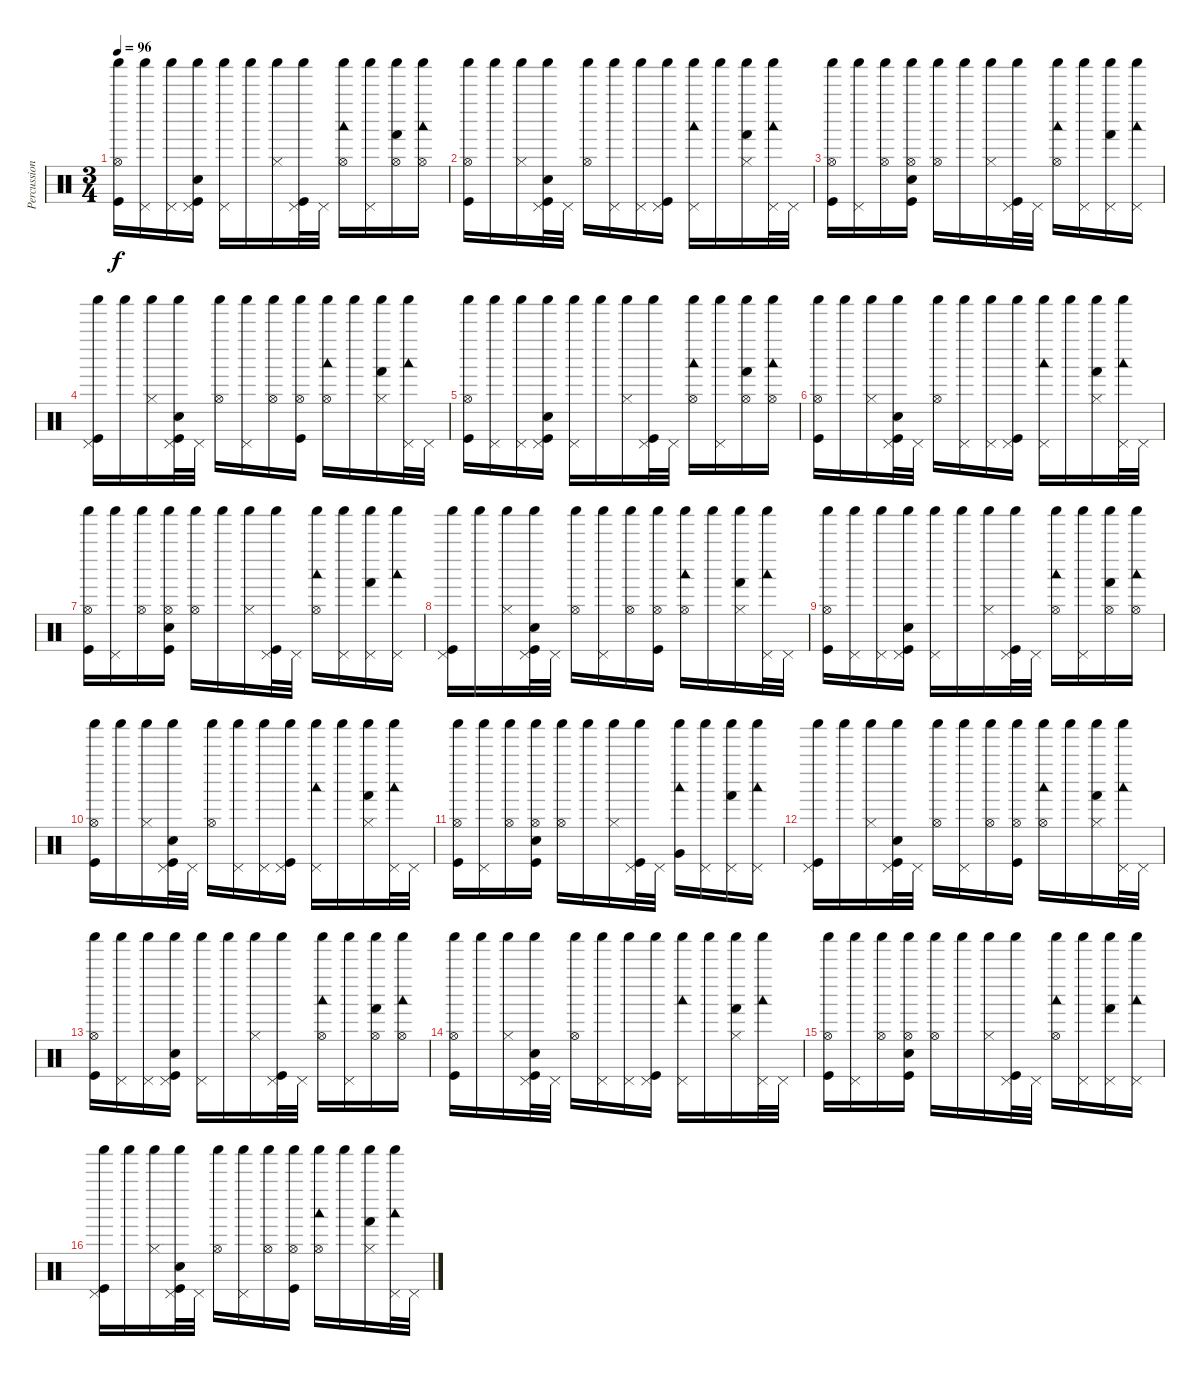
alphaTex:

\track ("Percussions" "Percussion") {instrument percussion}
\staff {score}
\articulation defaults
\ts (3 4)
\tempo 96
\clef neutral
\ks c
("Hi-Hat (open)" "Shaker (hit)" "Kick (hit)").16{dy f} ("Pedal Hi-Hat (hit)" "Shaker (hit)").16 ("Pedal Hi-Hat (hit)" "Shaker (hit)").16 ("Pedal Hi-Hat (hit)" "Shaker (hit)" "Metronome (bell)" "Kick (hit)").16 ("Pedal Hi-Hat (hit)" "Shaker (hit)").16 "Shaker (hit)".16 ("Hi-Hat (closed)" "Shaker (hit)").16 ("Pedal Hi-Hat (hit)" "Shaker (hit)" "Kick (hit)").32 "Pedal Hi-Hat (hit)".32 ("Hi-Hat (open)" "Shaker (hit)" "Woodblock low (hit)").16 ("Pedal Hi-Hat (hit)" "Shaker (hit)").16 ("Hi-Hat (open)" "Shaker (hit)" "Hand (hit)").16 ("Hi-Hat (open)" "Shaker (hit)" "Woodblock low (hit)").16 |
("Hi-Hat (open)" "Shaker (hit)" "Kick (hit)").16 "Shaker (hit)".16 ("Hi-Hat (closed)" "Shaker (hit)").16 ("Pedal Hi-Hat (hit)" "Shaker (hit)" "Metronome (bell)" "Kick (hit)").32 "Pedal Hi-Hat (hit)".32 ("Hi-Hat (open)" "Shaker (hit)").16 ("Pedal Hi-Hat (hit)" "Shaker (hit)").16 ("Pedal Hi-Hat (hit)" "Shaker (hit)").16 ("Pedal Hi-Hat (hit)" "Shaker (hit)" "Kick (hit)").16 ("Pedal Hi-Hat (hit)" "Shaker (hit)" "Woodblock low (hit)").16 "Shaker (hit)".16 ("Hi-Hat (closed)" "Shaker (hit)" "Hand (hit)").16 ("Pedal Hi-Hat (hit)" "Shaker (hit)" "Woodblock low (hit)").32 "Pedal Hi-Hat (hit)".32 |
("Hi-Hat (open)" "Shaker (hit)" "Kick (hit)").16 ("Pedal Hi-Hat (hit)" "Shaker (hit)").16 ("Hi-Hat (open)" "Shaker (hit)").16 ("Hi-Hat (open)" "Shaker (hit)" "Metronome (bell)" "Kick (hit)").16 ("Hi-Hat (open)" "Shaker (hit)").16 "Shaker (hit)".16 ("Hi-Hat (closed)" "Shaker (hit)").16 ("Pedal Hi-Hat (hit)" "Shaker (hit)" "Kick (hit)").32 "Pedal Hi-Hat (hit)".32 ("Hi-Hat (open)" "Shaker (hit)" "Woodblock low (hit)").16 ("Pedal Hi-Hat (hit)" "Shaker (hit)").16 ("Pedal Hi-Hat (hit)" "Shaker (hit)" "Hand (hit)").16 ("Pedal Hi-Hat (hit)" "Shaker (hit)" "Woodblock low (hit)").16 |
("Pedal Hi-Hat (hit)" "Shaker (hit)" "Kick (hit)").16 "Shaker (hit)".16 ("Hi-Hat (closed)" "Shaker (hit)").16 ("Pedal Hi-Hat (hit)" "Shaker (hit)" "Metronome (bell)" "Kick (hit)").32 "Pedal Hi-Hat (hit)".32 ("Hi-Hat (open)" "Shaker (hit)").16 ("Pedal Hi-Hat (hit)" "Shaker (hit)").16 ("Hi-Hat (open)" "Shaker (hit)").16 ("Hi-Hat (open)" "Shaker (hit)" "Kick (hit)").16 ("Hi-Hat (open)" "Shaker (hit)" "Woodblock low (hit)").16 "Shaker (hit)".16 ("Hi-Hat (closed)" "Shaker (hit)" "Hand (hit)").16 ("Pedal Hi-Hat (hit)" "Shaker (hit)" "Woodblock low (hit)").32 "Pedal Hi-Hat (hit)".32 |
("Hi-Hat (open)" "Shaker (hit)" "Kick (hit)").16 ("Pedal Hi-Hat (hit)" "Shaker (hit)").16 ("Pedal Hi-Hat (hit)" "Shaker (hit)").16 ("Pedal Hi-Hat (hit)" "Shaker (hit)" "Metronome (bell)" "Kick (hit)").16 ("Pedal Hi-Hat (hit)" "Shaker (hit)").16 "Shaker (hit)".16 ("Hi-Hat (closed)" "Shaker (hit)").16 ("Pedal Hi-Hat (hit)" "Shaker (hit)" "Kick (hit)").32 "Pedal Hi-Hat (hit)".32 ("Hi-Hat (open)" "Shaker (hit)" "Woodblock low (hit)").16 ("Pedal Hi-Hat (hit)" "Shaker (hit)").16 ("Hi-Hat (open)" "Shaker (hit)" "Hand (hit)").16 ("Hi-Hat (open)" "Shaker (hit)" "Woodblock low (hit)").16 |
("Hi-Hat (open)" "Shaker (hit)" "Kick (hit)").16 "Shaker (hit)".16 ("Hi-Hat (closed)" "Shaker (hit)").16 ("Pedal Hi-Hat (hit)" "Shaker (hit)" "Metronome (bell)" "Kick (hit)").32 "Pedal Hi-Hat (hit)".32 ("Hi-Hat (open)" "Shaker (hit)").16 ("Pedal Hi-Hat (hit)" "Shaker (hit)").16 ("Pedal Hi-Hat (hit)" "Shaker (hit)").16 ("Pedal Hi-Hat (hit)" "Shaker (hit)" "Kick (hit)").16 ("Pedal Hi-Hat (hit)" "Shaker (hit)" "Woodblock low (hit)").16 "Shaker (hit)".16 ("Hi-Hat (closed)" "Shaker (hit)" "Hand (hit)").16 ("Pedal Hi-Hat (hit)" "Shaker (hit)" "Woodblock low (hit)").32 "Pedal Hi-Hat (hit)".32 |
("Hi-Hat (open)" "Shaker (hit)" "Kick (hit)").16 ("Pedal Hi-Hat (hit)" "Shaker (hit)").16 ("Hi-Hat (open)" "Shaker (hit)").16 ("Hi-Hat (open)" "Shaker (hit)" "Metronome (bell)" "Kick (hit)").16 ("Hi-Hat (open)" "Shaker (hit)").16 "Shaker (hit)".16 ("Hi-Hat (closed)" "Shaker (hit)").16 ("Pedal Hi-Hat (hit)" "Shaker (hit)" "Kick (hit)").32 "Pedal Hi-Hat (hit)".32 ("Hi-Hat (open)" "Shaker (hit)" "Woodblock low (hit)").16 ("Pedal Hi-Hat (hit)" "Shaker (hit)").16 ("Pedal Hi-Hat (hit)" "Shaker (hit)" "Hand (hit)").16 ("Pedal Hi-Hat (hit)" "Shaker (hit)" "Woodblock low (hit)").16 |
("Pedal Hi-Hat (hit)" "Shaker (hit)" "Kick (hit)").16 "Shaker (hit)".16 ("Hi-Hat (closed)" "Shaker (hit)").16 ("Pedal Hi-Hat (hit)" "Shaker (hit)" "Metronome (bell)" "Kick (hit)").32 "Pedal Hi-Hat (hit)".32 ("Hi-Hat (open)" "Shaker (hit)").16 ("Pedal Hi-Hat (hit)" "Shaker (hit)").16 ("Hi-Hat (open)" "Shaker (hit)").16 ("Hi-Hat (open)" "Shaker (hit)" "Kick (hit)").16 ("Hi-Hat (open)" "Shaker (hit)" "Woodblock low (hit)").16 "Shaker (hit)".16 ("Hi-Hat (closed)" "Shaker (hit)" "Hand (hit)").16 ("Pedal Hi-Hat (hit)" "Shaker (hit)" "Woodblock low (hit)").32 "Pedal Hi-Hat (hit)".32 |
("Hi-Hat (open)" "Shaker (hit)" "Kick (hit)").16 ("Pedal Hi-Hat (hit)" "Shaker (hit)").16 ("Pedal Hi-Hat (hit)" "Shaker (hit)").16 ("Pedal Hi-Hat (hit)" "Shaker (hit)" "Metronome (bell)" "Kick (hit)").16 ("Pedal Hi-Hat (hit)" "Shaker (hit)").16 "Shaker (hit)".16 ("Hi-Hat (closed)" "Shaker (hit)").16 ("Pedal Hi-Hat (hit)" "Shaker (hit)" "Kick (hit)").32 "Pedal Hi-Hat (hit)".32 ("Hi-Hat (open)" "Shaker (hit)" "Woodblock low (hit)").16 ("Pedal Hi-Hat (hit)" "Shaker (hit)").16 ("Hi-Hat (open)" "Shaker (hit)" "Hand (hit)").16 ("Hi-Hat (open)" "Shaker (hit)" "Woodblock low (hit)").16 |
("Hi-Hat (open)" "Shaker (hit)" "Kick (hit)").16 "Shaker (hit)".16 ("Hi-Hat (closed)" "Shaker (hit)").16 ("Pedal Hi-Hat (hit)" "Shaker (hit)" "Metronome (bell)" "Kick (hit)").32 "Pedal Hi-Hat (hit)".32 ("Hi-Hat (open)" "Shaker (hit)").16 ("Pedal Hi-Hat (hit)" "Shaker (hit)").16 ("Pedal Hi-Hat (hit)" "Shaker (hit)").16 ("Pedal Hi-Hat (hit)" "Shaker (hit)" "Kick (hit)").16 ("Pedal Hi-Hat (hit)" "Shaker (hit)" "Woodblock low (hit)").16 "Shaker (hit)".16 ("Hi-Hat (closed)" "Shaker (hit)" "Hand (hit)").16 ("Pedal Hi-Hat (hit)" "Shaker (hit)" "Woodblock low (hit)").32 "Pedal Hi-Hat (hit)".32 |
("Hi-Hat (open)" "Shaker (hit)" "Kick (hit)").16 ("Pedal Hi-Hat (hit)" "Shaker (hit)").16 ("Hi-Hat (open)" "Shaker (hit)").16 ("Hi-Hat (open)" "Shaker (hit)" "Metronome (bell)" "Kick (hit)").16 ("Hi-Hat (open)" "Shaker (hit)").16 "Shaker (hit)".16 ("Hi-Hat (closed)" "Shaker (hit)").16 ("Pedal Hi-Hat (hit)" "Shaker (hit)" "Kick (hit)").32 "Pedal Hi-Hat (hit)".32 ("Very Low Tom (hit)" "Shaker (hit)" "Woodblock low (hit)").16 ("Pedal Hi-Hat (hit)" "Shaker (hit)").16 ("Pedal Hi-Hat (hit)" "Shaker (hit)" "Hand (hit)").16 ("Pedal Hi-Hat (hit)" "Shaker (hit)" "Woodblock low (hit)").16 |
("Pedal Hi-Hat (hit)" "Shaker (hit)" "Kick (hit)").16 "Shaker (hit)".16 ("Hi-Hat (closed)" "Shaker (hit)").16 ("Pedal Hi-Hat (hit)" "Shaker (hit)" "Metronome (bell)" "Kick (hit)").32 "Pedal Hi-Hat (hit)".32 ("Hi-Hat (open)" "Shaker (hit)").16 ("Pedal Hi-Hat (hit)" "Shaker (hit)").16 ("Hi-Hat (open)" "Shaker (hit)").16 ("Hi-Hat (open)" "Shaker (hit)" "Kick (hit)").16 ("Hi-Hat (open)" "Shaker (hit)" "Woodblock low (hit)").16 "Shaker (hit)".16 ("Hi-Hat (closed)" "Shaker (hit)" "Hand (hit)").16 ("Pedal Hi-Hat (hit)" "Shaker (hit)" "Woodblock low (hit)").32 "Pedal Hi-Hat (hit)".32 |
("Hi-Hat (open)" "Shaker (hit)" "Kick (hit)").16 ("Pedal Hi-Hat (hit)" "Shaker (hit)").16 ("Pedal Hi-Hat (hit)" "Shaker (hit)").16 ("Pedal Hi-Hat (hit)" "Shaker (hit)" "Metronome (bell)" "Kick (hit)").16 ("Pedal Hi-Hat (hit)" "Shaker (hit)").16 "Shaker (hit)".16 ("Hi-Hat (closed)" "Shaker (hit)").16 ("Pedal Hi-Hat (hit)" "Shaker (hit)" "Kick (hit)").32 "Pedal Hi-Hat (hit)".32 ("Hi-Hat (open)" "Shaker (hit)" "Woodblock low (hit)").16 ("Pedal Hi-Hat (hit)" "Shaker (hit)").16 ("Hi-Hat (open)" "Shaker (hit)" "Hand (hit)").16 ("Hi-Hat (open)" "Shaker (hit)" "Woodblock low (hit)").16 |
("Hi-Hat (open)" "Shaker (hit)" "Kick (hit)").16 "Shaker (hit)".16 ("Hi-Hat (closed)" "Shaker (hit)").16 ("Pedal Hi-Hat (hit)" "Shaker (hit)" "Metronome (bell)" "Kick (hit)").32 "Pedal Hi-Hat (hit)".32 ("Hi-Hat (open)" "Shaker (hit)").16 ("Pedal Hi-Hat (hit)" "Shaker (hit)").16 ("Pedal Hi-Hat (hit)" "Shaker (hit)").16 ("Pedal Hi-Hat (hit)" "Shaker (hit)" "Kick (hit)").16 ("Pedal Hi-Hat (hit)" "Shaker (hit)" "Woodblock low (hit)").16 "Shaker (hit)".16 ("Hi-Hat (closed)" "Shaker (hit)" "Hand (hit)").16 ("Pedal Hi-Hat (hit)" "Shaker (hit)" "Woodblock low (hit)").32 "Pedal Hi-Hat (hit)".32 |
("Hi-Hat (open)" "Shaker (hit)" "Kick (hit)").16 ("Pedal Hi-Hat (hit)" "Shaker (hit)").16 ("Hi-Hat (open)" "Shaker (hit)").16 ("Hi-Hat (open)" "Shaker (hit)" "Metronome (bell)" "Kick (hit)").16 ("Hi-Hat (open)" "Shaker (hit)").16 "Shaker (hit)".16 ("Hi-Hat (closed)" "Shaker (hit)").16 ("Pedal Hi-Hat (hit)" "Shaker (hit)" "Kick (hit)").32 "Pedal Hi-Hat (hit)".32 ("Hi-Hat (open)" "Shaker (hit)" "Woodblock low (hit)").16 ("Pedal Hi-Hat (hit)" "Shaker (hit)").16 ("Pedal Hi-Hat (hit)" "Shaker (hit)" "Hand (hit)").16 ("Pedal Hi-Hat (hit)" "Shaker (hit)" "Woodblock low (hit)").16 |
("Pedal Hi-Hat (hit)" "Shaker (hit)" "Kick (hit)").16 "Shaker (hit)".16 ("Hi-Hat (closed)" "Shaker (hit)").16 ("Pedal Hi-Hat (hit)" "Shaker (hit)" "Metronome (bell)" "Kick (hit)").32 "Pedal Hi-Hat (hit)".32 ("Hi-Hat (open)" "Shaker (hit)").16 ("Pedal Hi-Hat (hit)" "Shaker (hit)").16 ("Hi-Hat (open)" "Shaker (hit)").16 ("Hi-Hat (open)" "Shaker (hit)" "Kick (hit)").16 ("Hi-Hat (open)" "Shaker (hit)" "Woodblock low (hit)").16 "Shaker (hit)".16 ("Hi-Hat (closed)" "Shaker (hit)" "Hand (hit)").16 ("Pedal Hi-Hat (hit)" "Shaker (hit)" "Woodblock low (hit)").32 "Pedal Hi-Hat (hit)".32
